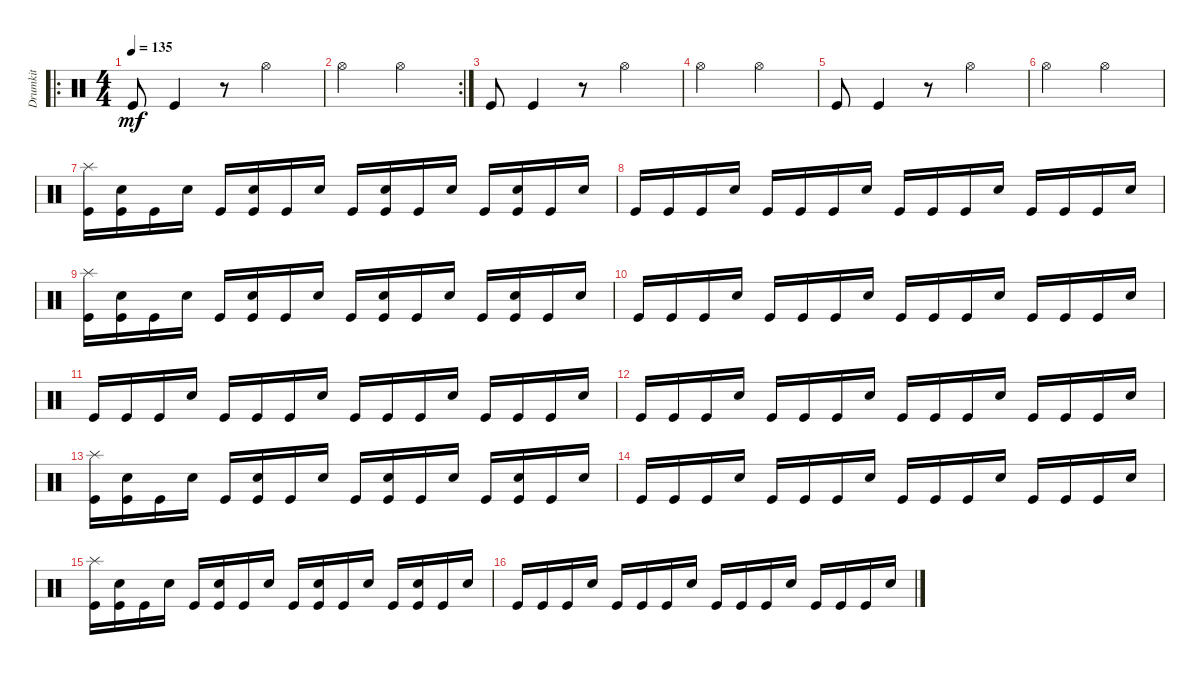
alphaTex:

\track ("Drumkit" "Drumkit") {instrument percussion}
\staff {score}
\articulation defaults
\ro
\ts (4 4)
\tempo 135
\clef neutral
\ks c "Kick (hit)".8{dy mf} "Kick (hit)".4
r.8 "Hi-Hat (open)".2 |
\rc 2 "Hi-Hat (open)".2 "Hi-Hat (open)".2
|
"Kick (hit)".8 "Kick (hit)".4 r.8 "Hi-Hat (open)".2 |
"Hi-Hat (open)".2 "Hi-Hat (open)".2 |
"Kick (hit)".8 "Kick (hit)".4 r.8 "Hi-Hat (open)".2 |
"Hi-Hat (open)".2 "Hi-Hat (open)".2 |
("Kick (hit)" "Splash (hit)").16 ("Snare (hit) 2" "Kick (hit)").16 "Kick (hit)".16 "Snare (hit) 2".16 "Kick (hit)".16 ("Snare (hit) 2" "Kick (hit)").16 "Kick (hit)".16 "Snare (hit) 2".16 "Kick (hit)".16 ("Snare (hit) 2" "Kick (hit)").16 "Kick (hit)".16 "Snare (hit) 2".16 "Kick (hit)".16 ("Snare (hit) 2" "Kick (hit)").16 "Kick (hit)".16 "Snare (hit) 2".16 |
"Kick (hit)".16 "Kick (hit)".16 "Kick (hit)".16 "Snare (hit) 2".16 "Kick (hit)".16 "Kick (hit)".16 "Kick (hit)".16 "Snare (hit) 2".16 "Kick (hit)".16 "Kick (hit)".16 "Kick (hit)".16 "Snare (hit) 2".16 "Kick (hit)".16 "Kick (hit)".16 "Kick (hit)".16 "Snare (hit) 2".16 |
("Kick (hit)" "Splash (hit)").16 ("Snare (hit) 2" "Kick (hit)").16 "Kick (hit)".16 "Snare (hit) 2".16 "Kick (hit)".16 ("Snare (hit) 2" "Kick (hit)").16 "Kick (hit)".16 "Snare (hit) 2".16 "Kick (hit)".16 ("Snare (hit) 2" "Kick (hit)").16 "Kick (hit)".16 "Snare (hit) 2".16 "Kick (hit)".16 ("Snare (hit) 2" "Kick (hit)").16 "Kick (hit)".16 "Snare (hit) 2".16 |
"Kick (hit)".16 "Kick (hit)".16 "Kick (hit)".16 "Snare (hit) 2".16 "Kick (hit)".16 "Kick (hit)".16 "Kick (hit)".16 "Snare (hit) 2".16 "Kick (hit)".16 "Kick (hit)".16 "Kick (hit)".16 "Snare (hit) 2".16 "Kick (hit)".16 "Kick (hit)".16 "Kick (hit)".16 "Snare (hit) 2".16 |
"Kick (hit)".16 "Kick (hit)".16 "Kick (hit)".16 "Snare (hit) 2".16 "Kick (hit)".16 "Kick (hit)".16 "Kick (hit)".16 "Snare (hit) 2".16 "Kick (hit)".16 "Kick (hit)".16 "Kick (hit)".16 "Snare (hit) 2".16 "Kick (hit)".16 "Kick (hit)".16 "Kick (hit)".16 "Snare (hit) 2".16 |
"Kick (hit)".16 "Kick (hit)".16 "Kick (hit)".16 "Snare (hit) 2".16 "Kick (hit)".16 "Kick (hit)".16 "Kick (hit)".16 "Snare (hit) 2".16 "Kick (hit)".16 "Kick (hit)".16 "Kick (hit)".16 "Snare (hit) 2".16 "Kick (hit)".16 "Kick (hit)".16 "Kick (hit)".16 "Snare (hit) 2".16 |
("Kick (hit)" "Splash (hit)").16 ("Snare (hit) 2" "Kick (hit)").16 "Kick (hit)".16 "Snare (hit) 2".16 "Kick (hit)".16 ("Snare (hit) 2" "Kick (hit)").16 "Kick (hit)".16 "Snare (hit) 2".16 "Kick (hit)".16 ("Snare (hit) 2" "Kick (hit)").16 "Kick (hit)".16 "Snare (hit) 2".16 "Kick (hit)".16 ("Snare (hit) 2" "Kick (hit)").16 "Kick (hit)".16 "Snare (hit) 2".16 |
"Kick (hit)".16 "Kick (hit)".16 "Kick (hit)".16 "Snare (hit) 2".16 "Kick (hit)".16 "Kick (hit)".16 "Kick (hit)".16 "Snare (hit) 2".16 "Kick (hit)".16 "Kick (hit)".16 "Kick (hit)".16 "Snare (hit) 2".16 "Kick (hit)".16 "Kick (hit)".16 "Kick (hit)".16 "Snare (hit) 2".16 |
("Kick (hit)" "Splash (hit)").16 ("Snare (hit) 2" "Kick (hit)").16 "Kick (hit)".16 "Snare (hit) 2".16 "Kick (hit)".16 ("Snare (hit) 2" "Kick (hit)").16 "Kick (hit)".16 "Snare (hit) 2".16 "Kick (hit)".16 ("Snare (hit) 2" "Kick (hit)").16 "Kick (hit)".16 "Snare (hit) 2".16 "Kick (hit)".16 ("Snare (hit) 2" "Kick (hit)").16 "Kick (hit)".16 "Snare (hit) 2".16 |
"Kick (hit)".16 "Kick (hit)".16 "Kick (hit)".16 "Snare (hit) 2".16 "Kick (hit)".16 "Kick (hit)".16 "Kick (hit)".16 "Snare (hit) 2".16 "Kick (hit)".16 "Kick (hit)".16 "Kick (hit)".16 "Snare (hit) 2".16 "Kick (hit)".16 "Kick (hit)".16 "Kick (hit)".16 "Snare (hit) 2".16
